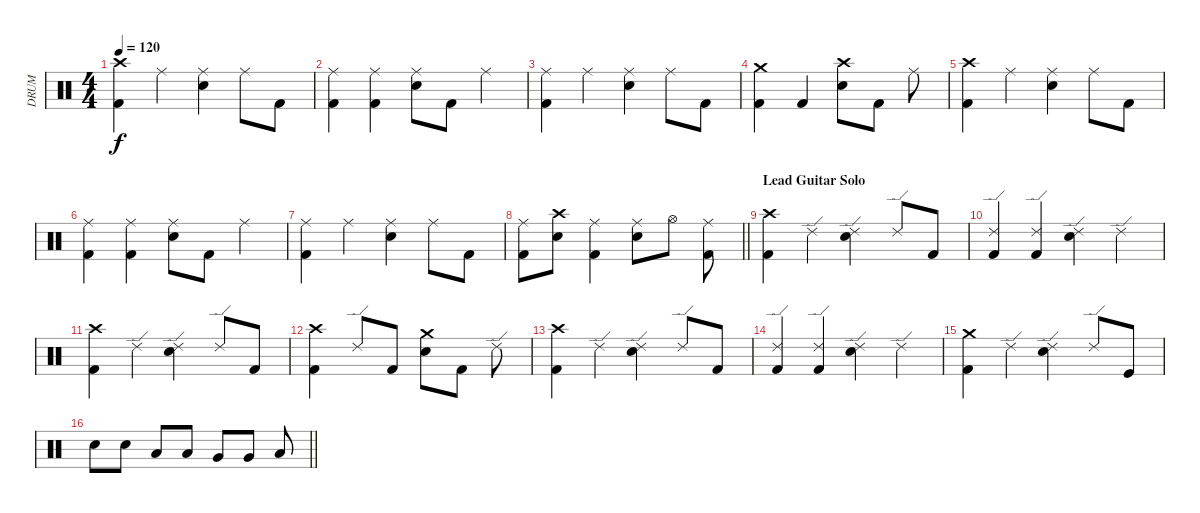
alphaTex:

\track ("DRUM" "DRUM") {instrument percussion}
\staff {score}
\articulation defaults
\ts (4 4)
\tempo 120
\clef neutral
\ks c
("Crash high (hit)" "Kick (hit) 2").4{dy f} "Ride (middle)".4 ("Ride (middle)" "Electric Snare (hit)").4 "Ride (middle)".8 "Kick (hit) 2".8 |
("Ride (middle)" "Kick (hit) 2").4 ("Ride (middle)" "Kick (hit) 2").4 ("Ride (middle)" "Electric Snare (hit)").8 "Kick (hit) 2".8 "Ride (middle)".4 |
("Kick (hit) 2" "Ride (middle)").4 "Ride (middle)".4 ("Ride (middle)" "Electric Snare (hit)").4 "Ride (middle)".8 "Kick (hit) 2".8 |
("Crash medium (hit)" "Kick (hit) 2").4 "Kick (hit) 2".4 ("Crash high (hit)" "Electric Snare (hit)").8 "Kick (hit) 2".8 "Ride (middle)".8 |
("Crash high (hit)" "Kick (hit) 2").4 "Ride (middle)".4 ("Ride (middle)" "Electric Snare (hit)").4 "Ride (middle)".8 "Kick (hit) 2".8 |
("Ride (middle)" "Kick (hit) 2").4 ("Ride (middle)" "Kick (hit) 2").4 ("Ride (middle)" "Electric Snare (hit)").8 "Kick (hit) 2".8 "Ride (middle)".4 |
("Kick (hit) 2" "Ride (middle)").4 "Ride (middle)".4 ("Ride (middle)" "Electric Snare (hit)").4 "Ride (middle)".8 "Kick (hit) 2".8 |
\barLineRight lightlight
("Kick (hit) 2" "Ride (middle)").8 ("Electric Snare (hit)" "Crash high (hit)").8 ("Kick (hit) 2" "Ride (middle)").4 ("Electric Snare (hit)" "Ride (middle)").8 "Hi-Hat (open)".8 ("Kick (hit) 2" "Ride (middle)").8 |
\section ("" "Lead Guitar Solo")
("Kick (hit) 2" "Crash high (hit)").4 "Ride (edge) 2".4 ("Ride (edge) 2" "Electric Snare (hit)").4 "Ride (edge) 2".8 "Kick (hit) 2".8 |
("Ride (edge) 2" "Kick (hit) 2").4 ("Ride (edge) 2" "Kick (hit) 2").4 ("Ride (edge) 2" "Electric Snare (hit)").4 "Ride (edge) 2".4 |
("Crash high (hit)" "Kick (hit) 2").4 "Ride (edge) 2".4 ("Ride (edge) 2" "Electric Snare (hit)").4 "Ride (edge) 2".8 "Kick (hit) 2".8 |
("Crash high (hit)" "Kick (hit) 2").4 "Ride (edge) 2".8 "Kick (hit) 2".8 ("Crash medium (hit)" "Electric Snare (hit)").8 "Kick (hit) 2".8 "Ride (edge) 2".8 |
("Crash high (hit)" "Kick (hit) 2").4 "Ride (edge) 2".4 ("Ride (edge) 2" "Electric Snare (hit)").4 "Ride (edge) 2".8 "Kick (hit) 2".8 |
("Ride (edge) 2" "Kick (hit) 2").4 ("Ride (edge) 2" "Kick (hit) 2").4 ("Ride (edge) 2" "Electric Snare (hit)").4 "Ride (edge) 2".4 |
("Crash medium (hit)" "Kick (hit) 2").4 "Ride (edge) 2".4 ("Ride (edge) 2" "Electric Snare (hit)").4 "Ride (edge) 2".8 "Kick (hit)".8 |
\barLineRight lightlight "Electric Snare (hit)".8 "Electric Snare (hit)".8 "Low Tom (hit)".8 "Low Tom (hit)".8 "Very Low Tom (hit)".8 "Very Low Tom (hit)".8 "Low Floor Tom (hit)".8
